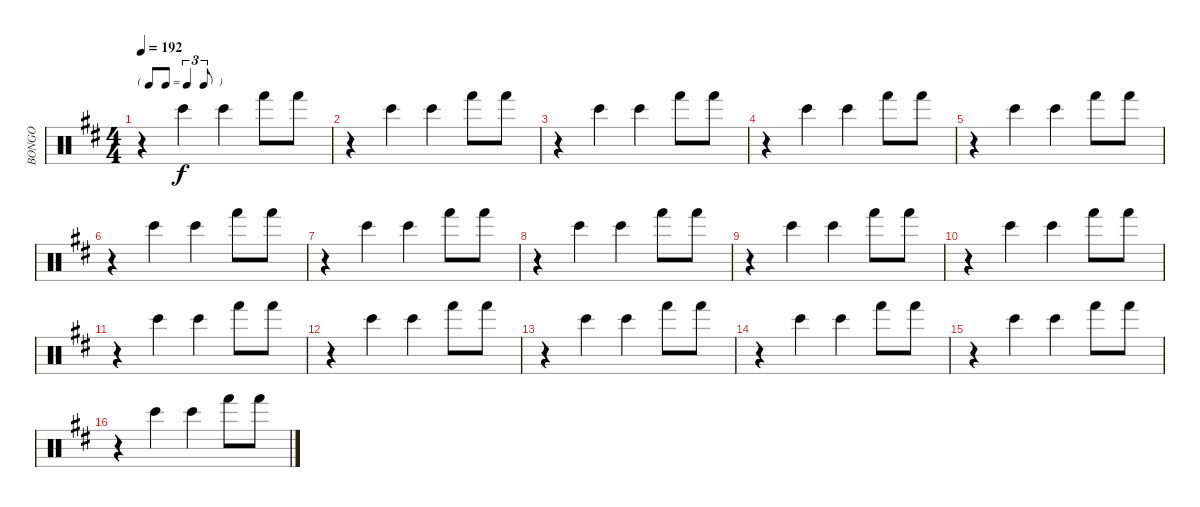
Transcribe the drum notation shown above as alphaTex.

\track ("BONGO" "BONGO") {instrument percussion}
\staff {score}
\articulation defaults
\ts (4 4)
\tf triplet8th
\tempo 192
\clef neutral
\ks d
r.4{dy f} "Bongo High (hit)".4 "Bongo High (hit)".4 "Hand (hit)".8 "Hand (hit)".8 |
r.4 "Bongo High (hit)".4 "Bongo High (hit)".4 "Hand (hit)".8 "Hand (hit)".8 |
r.4 "Bongo High (hit)".4 "Bongo High (hit)".4 "Hand (hit)".8 "Hand (hit)".8 |
r.4 "Bongo High (hit)".4 "Bongo High (hit)".4 "Hand (hit)".8 "Hand (hit)".8 |
r.4 "Bongo High (hit)".4 "Bongo High (hit)".4 "Hand (hit)".8 "Hand (hit)".8 |
r.4 "Bongo High (hit)".4 "Bongo High (hit)".4 "Hand (hit)".8 "Hand (hit)".8 |
r.4 "Bongo High (hit)".4 "Bongo High (hit)".4 "Hand (hit)".8 "Hand (hit)".8 |
r.4 "Bongo High (hit)".4 "Bongo High (hit)".4 "Hand (hit)".8 "Hand (hit)".8 |
r.4 "Bongo High (hit)".4 "Bongo High (hit)".4 "Hand (hit)".8 "Hand (hit)".8 |
r.4 "Bongo High (hit)".4 "Bongo High (hit)".4 "Hand (hit)".8 "Hand (hit)".8 |
r.4 "Bongo High (hit)".4 "Bongo High (hit)".4 "Hand (hit)".8 "Hand (hit)".8 |
r.4 "Bongo High (hit)".4 "Bongo High (hit)".4 "Hand (hit)".8 "Hand (hit)".8 |
r.4 "Bongo High (hit)".4 "Bongo High (hit)".4 "Hand (hit)".8 "Hand (hit)".8 |
r.4 "Bongo High (hit)".4 "Bongo High (hit)".4 "Hand (hit)".8 "Hand (hit)".8 |
r.4 "Bongo High (hit)".4 "Bongo High (hit)".4 "Hand (hit)".8 "Hand (hit)".8 |
r.4 "Bongo High (hit)".4 "Bongo High (hit)".4 "Hand (hit)".8 "Hand (hit)".8
